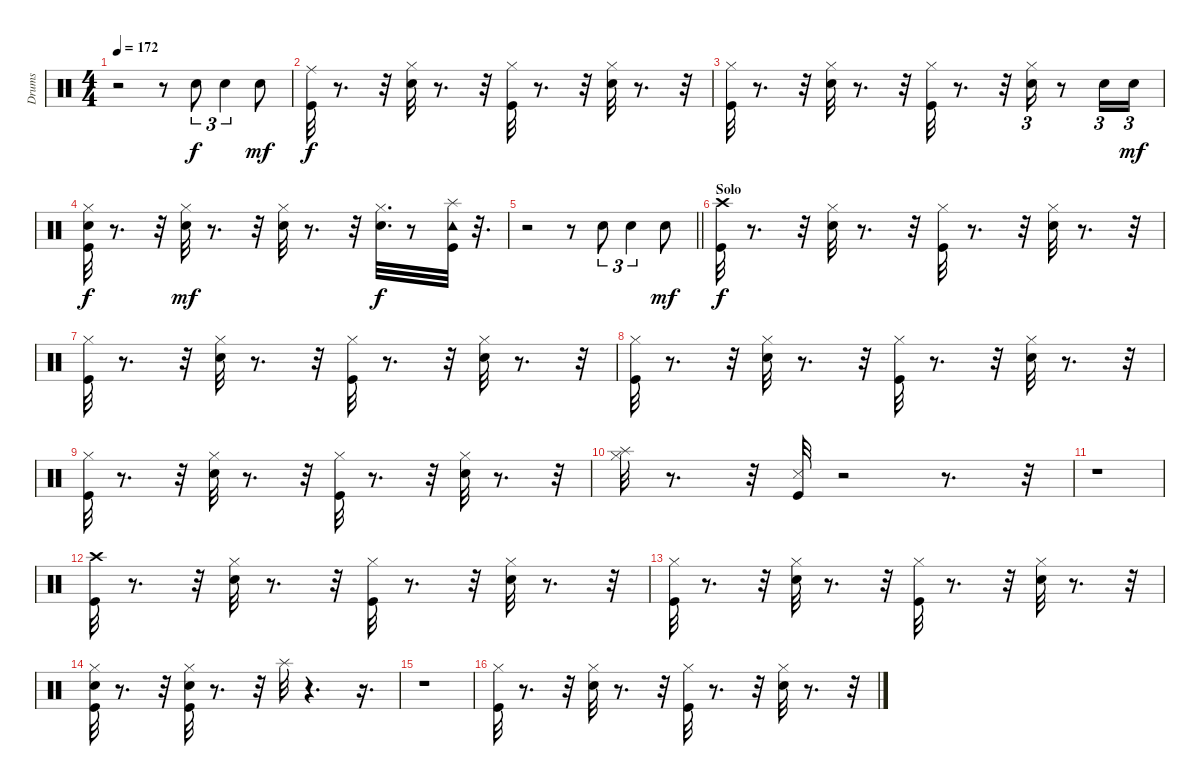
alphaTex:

\track ("Drums" "Drums") {instrument percussion}
\staff {score}
\articulation defaults
\ts (4 4)
\tempo 172
\clef neutral
\ks c
r.2{dy f} r.8 "Electric Snare (hit)".8{tu (3 2)} "Electric Snare (hit)".4{tu (3 2)} "Electric Snare (hit)".8{dy mf} |
("Kick (hit)" "Ride (middle)").32{dy f} r.8{d} r.32 ("Snare (hit) 2" "Hi-Hat (closed)").32 r.8{d} r.32 ("Hi-Hat (closed)" "Kick (hit)").32 r.8{d} r.32 ("Snare (hit) 2" "Hi-Hat (closed)").32 r.8{d} r.32 |
("Kick (hit)" "Hi-Hat (closed)").32 r.8{d} r.32 ("Snare (hit) 2" "Hi-Hat (closed)").32 r.8{d} r.32 ("Kick (hit)" "Hi-Hat (closed)").32 r.8{d} r.32 ("Snare (hit) 2" "Hi-Hat (closed)").16{tu (3 2)} r.8 "Snare (hit) 2".16{tu (3 2)} "Snare (hit) 2".16{tu (3 2) dy mf} |
("Snare (hit) 2" "Hi-Hat (closed)" "Kick (hit)").32{dy f} r.8{d} r.32 ("Snare (hit) 2" "Hi-Hat (closed)").32{dy mf} r.8{d} r.32 ("Snare (hit) 2" "Hi-Hat (closed)").32 r.8{d} r.32 ("Snare (hit) 2" "Hi-Hat (closed)").32{d dy f} r.8 ("Tambourine (hit)" "Kick (hit)" "Splash (hit)").32 r.32{d} |
\barLineRight lightlight
r.2 r.8 "Electric Snare (hit)".8{tu (3 2)} "Electric Snare (hit)".4{tu (3 2)} "Electric Snare (hit)".8{dy mf} |
\section ("" "Solo")
("Crash high (hit)" "Kick (hit)").32{dy f} r.8{d} r.32 ("Snare (hit) 2" "Hi-Hat (closed)").32 r.8{d} r.32 ("Kick (hit)" "Hi-Hat (closed)").32 r.8{d} r.32 ("Snare (hit) 2" "Hi-Hat (closed)").32 r.8{d} r.32 |
("Kick (hit)" "Hi-Hat (closed)").32 r.8{d} r.32 ("Snare (hit) 2" "Hi-Hat (closed)").32 r.8{d} r.32 ("Kick (hit)" "Hi-Hat (closed)").32 r.8{d} r.32 ("Snare (hit) 2" "Hi-Hat (closed)").32 r.8{d} r.32 |
("Hi-Hat (closed)" "Kick (hit)").32 r.8{d} r.32 ("Snare (hit) 2" "Hi-Hat (closed)").32 r.8{d} r.32 ("Kick (hit)" "Hi-Hat (closed)").32 r.8{d} r.32 ("Snare (hit) 2" "Hi-Hat (closed)").32 r.8{d} r.32 |
("Kick (hit)" "Hi-Hat (closed)").32 r.8{d} r.32 ("Snare (hit) 2" "Hi-Hat (closed)").32 r.8{d} r.32 ("Hi-Hat (closed)" "Kick (hit)").32 r.8{d} r.32 ("Snare (hit) 2" "Hi-Hat (closed)").32 r.8{d} r.32 |
("Hi-Hat (closed)" "Splash (hit)").32 r.8{d} r.32 ("Kick (hit)" "Metronome (hit)").32 r.2 r.8{d} r.32 |
r.1 |
("Kick (hit)" "Crash high (hit)").32 r.8{d} r.32 ("Snare (hit) 2" "Hi-Hat (closed)").32 r.8{d} r.32 ("Hi-Hat (closed)" "Kick (hit)").32 r.8{d} r.32 ("Snare (hit) 2" "Hi-Hat (closed)").32 r.8{d} r.32 |
("Kick (hit)" "Hi-Hat (closed)").32 r.8{d} r.32 ("Snare (hit) 2" "Hi-Hat (closed)").32 r.8{d} r.32 ("Hi-Hat (closed)" "Kick (hit)").32 r.8{d} r.32 ("Snare (hit) 2" "Hi-Hat (closed)").32 r.8{d} r.32 |
("Snare (hit) 2" "Kick (hit)" "Hi-Hat (closed)").32 r.8{d} r.32 ("Snare (hit) 2" "Kick (hit)" "Hi-Hat (closed)").32 r.8{d} r.32 "Splash (hit)".32 r.4{d} r.16{d} |
r.1 |
("Kick (hit)" "Hi-Hat (closed)").32 r.8{d} r.32 ("Snare (hit) 2" "Hi-Hat (closed)").32 r.8{d} r.32 ("Kick (hit)" "Hi-Hat (closed)").32 r.8{d} r.32 ("Snare (hit) 2" "Hi-Hat (closed)").32 r.8{d} r.32
